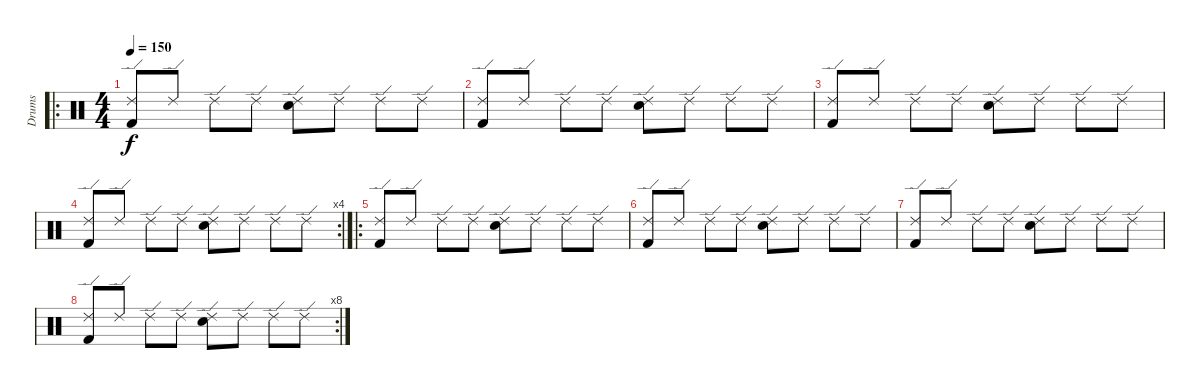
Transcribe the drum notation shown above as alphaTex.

\track ("Drums" "Drums") {instrument percussion}
\staff {score}
\articulation defaults
\ro
\ts (4 4)
\tempo 150
\clef neutral
\ks c
("Ride (edge) 2" "Kick (hit) 2").8{dy f} "Ride (edge) 2".8 "Ride (edge) 2".8 "Ride (edge) 2".8 ("Ride (edge) 2" "Electric Snare (hit)").8 "Ride (edge) 2".8 "Ride (edge) 2".8 "Ride (edge) 2".8 |
("Ride (edge) 2" "Kick (hit) 2").8 "Ride (edge) 2".8 "Ride (edge) 2".8 "Ride (edge) 2".8 ("Ride (edge) 2" "Electric Snare (hit)").8 "Ride (edge) 2".8 "Ride (edge) 2".8 "Ride (edge) 2".8 |
("Ride (edge) 2" "Kick (hit) 2").8 "Ride (edge) 2".8 "Ride (edge) 2".8 "Ride (edge) 2".8 ("Ride (edge) 2" "Electric Snare (hit)").8 "Ride (edge) 2".8 "Ride (edge) 2".8 "Ride (edge) 2".8 |
\rc 4
("Ride (edge) 2" "Kick (hit) 2").8 "Ride (edge) 2".8 "Ride (edge) 2".8 "Ride (edge) 2".8 ("Ride (edge) 2" "Electric Snare (hit)").8 "Ride (edge) 2".8 "Ride (edge) 2".8 "Ride (edge) 2".8 |
\ro
("Ride (edge) 2" "Kick (hit) 2").8 "Ride (edge) 2".8 "Ride (edge) 2".8 "Ride (edge) 2".8 ("Ride (edge) 2" "Electric Snare (hit)").8 "Ride (edge) 2".8 "Ride (edge) 2".8 "Ride (edge) 2".8 |
("Ride (edge) 2" "Kick (hit) 2").8 "Ride (edge) 2".8 "Ride (edge) 2".8 "Ride (edge) 2".8 ("Ride (edge) 2" "Electric Snare (hit)").8 "Ride (edge) 2".8 "Ride (edge) 2".8 "Ride (edge) 2".8 |
("Ride (edge) 2" "Kick (hit) 2").8 "Ride (edge) 2".8 "Ride (edge) 2".8 "Ride (edge) 2".8 ("Ride (edge) 2" "Electric Snare (hit)").8 "Ride (edge) 2".8 "Ride (edge) 2".8 "Ride (edge) 2".8 |
\rc 8
("Ride (edge) 2" "Kick (hit) 2").8 "Ride (edge) 2".8 "Ride (edge) 2".8 "Ride (edge) 2".8 ("Ride (edge) 2" "Electric Snare (hit)").8 "Ride (edge) 2".8 "Ride (edge) 2".8 "Ride (edge) 2".8
